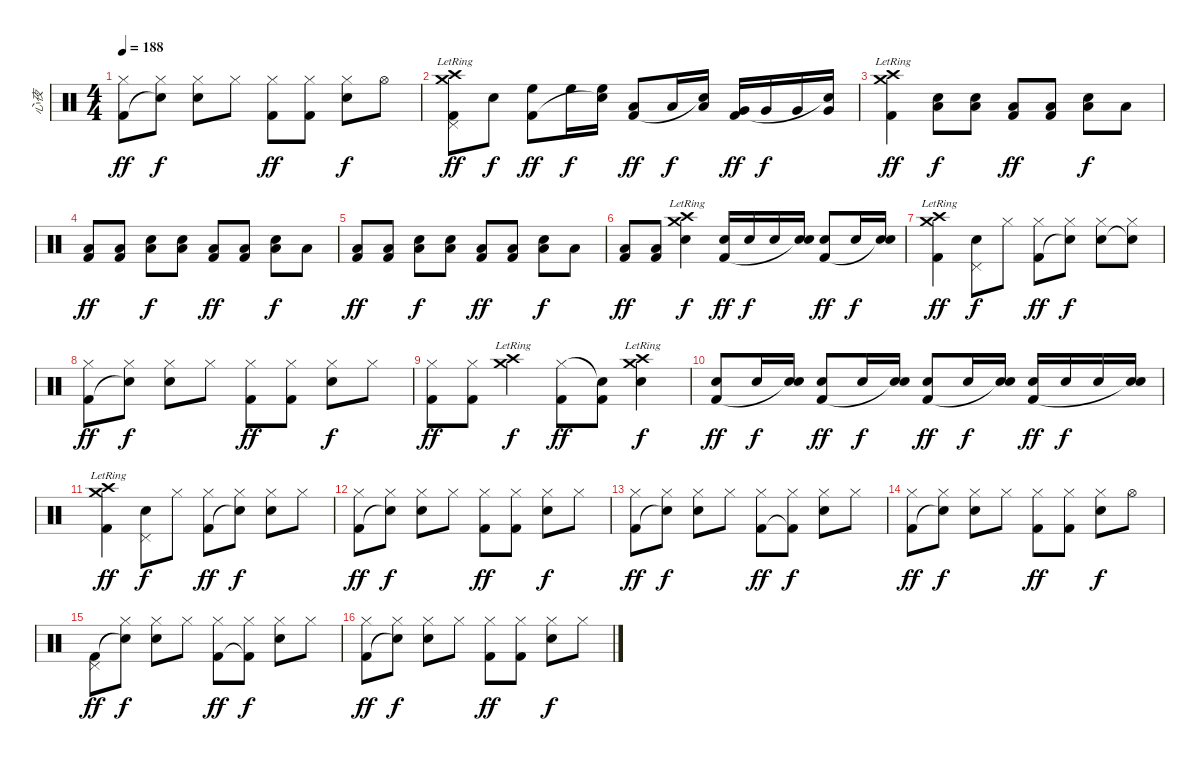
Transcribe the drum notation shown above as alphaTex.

\track ("心夜" "心夜") {instrument percussion}
\staff {score}
\articulation defaults
\ts (4 4)
\tempo 188
\clef neutral
\ks c
("Hi-Hat (closed)" "Kick (hit) 2").8{dy ff} ("Hi-Hat (closed)" "Snare (hit)"{t}).8{dy f} ("Hi-Hat (closed)" "Electric Snare (hit)").8 "Hi-Hat (closed)".8 ("Hi-Hat (closed)" "Kick (hit) 2").8{dy ff} ("Hi-Hat (closed)" "Kick (hit) 2").8 ("Hi-Hat (closed)" "Electric Snare (hit)").8{dy f} "Hi-Hat (open)".8 |
("Pedal Hi-Hat (hit)" "Crash high (hit)"{lr} "Crash medium (hit)"{lr} "Kick (hit) 2").8{dy ff} "Electric Snare (hit)".8{dy f} ("High Floor Tom (hit)" "Kick (hit) 2").8{dy ff} "High Floor Tom (hit)".16{dy f} ("High Floor Tom (hit)" "Snare (hit)"{t}).16 ("Low Tom (hit)" "Kick (hit) 2").8{dy ff} "Low Tom (hit)".16{dy f} ("Low Tom (hit)" "Snare (hit)"{t}).16 ("Very Low Tom (hit)" "Kick (hit) 2").16{dy ff} "Very Low Tom (hit)".16{dy f} "Very Low Tom (hit)".16 ("Very Low Tom (hit)" "Snare (hit)"{t}).16 |
("Crash medium (hit)"{lr} "Crash high (hit)"{lr} "Kick (hit) 2").4{dy ff} ("Electric Snare (hit)" "Low Floor Tom (hit)").8{dy f} ("Electric Snare (hit)" "Low Floor Tom (hit)").8 ("Low Floor Tom (hit)" "Kick (hit) 2").8{dy ff} ("Low Floor Tom (hit)" "Kick (hit) 2").8 ("Electric Snare (hit)" "Low Floor Tom (hit)").8{dy f} "Low Floor Tom (hit)".8 |
("Low Floor Tom (hit)" "Kick (hit) 2").8{dy ff} ("Low Floor Tom (hit)" "Kick (hit) 2").8 ("Electric Snare (hit)" "Low Floor Tom (hit)").8{dy f} ("Electric Snare (hit)" "Low Floor Tom (hit)").8 ("Low Floor Tom (hit)" "Kick (hit) 2").8{dy ff} ("Low Floor Tom (hit)" "Kick (hit) 2").8 ("Electric Snare (hit)" "Low Floor Tom (hit)").8{dy f} "Low Floor Tom (hit)".8 |
("Low Floor Tom (hit)" "Kick (hit) 2").8{dy ff} ("Low Floor Tom (hit)" "Kick (hit) 2").8 ("Electric Snare (hit)" "Low Floor Tom (hit)").8{dy f} ("Electric Snare (hit)" "Low Floor Tom (hit)").8 ("Low Floor Tom (hit)" "Kick (hit) 2").8{dy ff} ("Low Floor Tom (hit)" "Kick (hit) 2").8 ("Electric Snare (hit)" "Low Floor Tom (hit)").8{dy f} "Low Floor Tom (hit)".8 |
("Low Floor Tom (hit)" "Kick (hit) 2").8{dy ff} ("Low Floor Tom (hit)" "Kick (hit) 2").8 ("Crash medium (hit)"{lr} "Crash high (hit)"{lr} "Electric Snare (hit)").4{dy f} ("Electric Snare (hit)" "Kick (hit) 2").16{dy ff} "Electric Snare (hit)".16{dy f} "Electric Snare (hit)".16 ("Electric Snare (hit)" "Snare (hit)"{t}).16 ("Electric Snare (hit)" "Kick (hit) 2").8{dy ff} "Electric Snare (hit)".16{dy f} ("Electric Snare (hit)" "Snare (hit)"{t}).16 |
("Crash medium (hit)"{lr} "Crash high (hit)"{lr} "Kick (hit) 2").4{dy ff} ("Pedal Hi-Hat (hit)" "Electric Snare (hit)").8{dy f} "Hi-Hat (closed)".8 ("Hi-Hat (closed)" "Kick (hit) 2").8{dy ff} ("Hi-Hat (closed)" "Snare (hit)"{t}).8{dy f} ("Hi-Hat (closed)" "Electric Snare (hit)").8 ("Hi-Hat (closed)" "Snare (hit)"{t}).8 |
("Hi-Hat (closed)" "Kick (hit) 2").8{dy ff} ("Hi-Hat (closed)" "Snare (hit)"{t}).8{dy f} ("Hi-Hat (closed)" "Electric Snare (hit)").8 "Hi-Hat (closed)".8 ("Hi-Hat (closed)" "Kick (hit) 2").8{dy ff} ("Hi-Hat (closed)" "Kick (hit) 2").8 ("Hi-Hat (closed)" "Electric Snare (hit)").8{dy f} "Hi-Hat (closed)".8 |
("Hi-Hat (closed)" "Kick (hit) 2").8{dy ff} ("Hi-Hat (closed)" "Kick (hit) 2").8 ("Crash medium (hit)"{lr} "Crash high (hit)"{lr}).4{dy f} ("Hi-Hat (closed)" "Kick (hit) 2").8{dy ff} ("Snare (hit)"{t} "Kick (hit) 2").8 ("Crash medium (hit)"{lr} "Electric Snare (hit)" "Crash high (hit)"{lr}).4{dy f} |
("Electric Snare (hit)" "Kick (hit) 2").8{dy ff} "Electric Snare (hit)".16{dy f} ("Electric Snare (hit)" "Snare (hit)"{t}).16 ("Electric Snare (hit)" "Kick (hit) 2").8{dy ff} "Electric Snare (hit)".16{dy f} ("Electric Snare (hit)" "Snare (hit)"{t}).16 ("Electric Snare (hit)" "Kick (hit) 2").8{dy ff} "Electric Snare (hit)".16{dy f} ("Electric Snare (hit)" "Snare (hit)"{t}).16 ("Electric Snare (hit)" "Kick (hit) 2").16{dy ff} "Electric Snare (hit)".16{dy f} "Electric Snare (hit)".16 ("Electric Snare (hit)" "Snare (hit)"{t}).16 |
("Crash medium (hit)"{lr} "Crash high (hit)"{lr} "Kick (hit) 2").4{dy ff} ("Pedal Hi-Hat (hit)" "Electric Snare (hit)").8{dy f} "Hi-Hat (closed)".8 ("Hi-Hat (closed)" "Kick (hit) 2").8{dy ff} ("Hi-Hat (closed)" "Snare (hit)"{t}).8{dy f} ("Hi-Hat (closed)" "Electric Snare (hit)").8 "Hi-Hat (closed)".8 |
("Hi-Hat (closed)" "Kick (hit) 2").8{dy ff} ("Hi-Hat (closed)" "Snare (hit)"{t}).8{dy f} ("Hi-Hat (closed)" "Electric Snare (hit)").8 "Hi-Hat (closed)".8 ("Hi-Hat (closed)" "Kick (hit) 2").8{dy ff} ("Hi-Hat (closed)" "Kick (hit) 2").8 ("Hi-Hat (closed)" "Electric Snare (hit)").8{dy f} "Hi-Hat (closed)".8 |
("Hi-Hat (closed)" "Kick (hit) 2").8{dy ff} ("Hi-Hat (closed)" "Snare (hit)"{t}).8{dy f} ("Hi-Hat (closed)" "Electric Snare (hit)").8 "Hi-Hat (closed)".8 ("Hi-Hat (closed)" "Kick (hit) 2").8{dy ff} ("Hi-Hat (closed)" "Kick (hit) 2"{t}).8{dy f} ("Hi-Hat (closed)" "Electric Snare (hit)").8 "Hi-Hat (closed)".8 |
("Hi-Hat (closed)" "Kick (hit) 2").8{dy ff} ("Hi-Hat (closed)" "Snare (hit)"{t}).8{dy f} ("Hi-Hat (closed)" "Electric Snare (hit)").8 "Hi-Hat (closed)".8 ("Hi-Hat (closed)" "Kick (hit) 2").8{dy ff} ("Hi-Hat (closed)" "Kick (hit) 2").8 ("Hi-Hat (closed)" "Electric Snare (hit)").8{dy f} "Hi-Hat (open)".8 |
("Pedal Hi-Hat (hit)" "Kick (hit) 2").8{dy ff} ("Hi-Hat (closed)" "Snare (hit)"{t}).8{dy f} ("Hi-Hat (closed)" "Electric Snare (hit)").8 "Hi-Hat (closed)".8 ("Hi-Hat (closed)" "Kick (hit) 2").8{dy ff} ("Hi-Hat (closed)" "Kick (hit) 2"{t}).8{dy f} ("Hi-Hat (closed)" "Electric Snare (hit)").8 "Hi-Hat (closed)".8 |
("Hi-Hat (closed)" "Kick (hit) 2").8{dy ff} ("Hi-Hat (closed)" "Snare (hit)"{t}).8{dy f} ("Hi-Hat (closed)" "Electric Snare (hit)").8 "Hi-Hat (closed)".8 ("Hi-Hat (closed)" "Kick (hit) 2").8{dy ff} ("Hi-Hat (closed)" "Kick (hit) 2").8 ("Hi-Hat (closed)" "Electric Snare (hit)").8{dy f} "Hi-Hat (closed)".8
